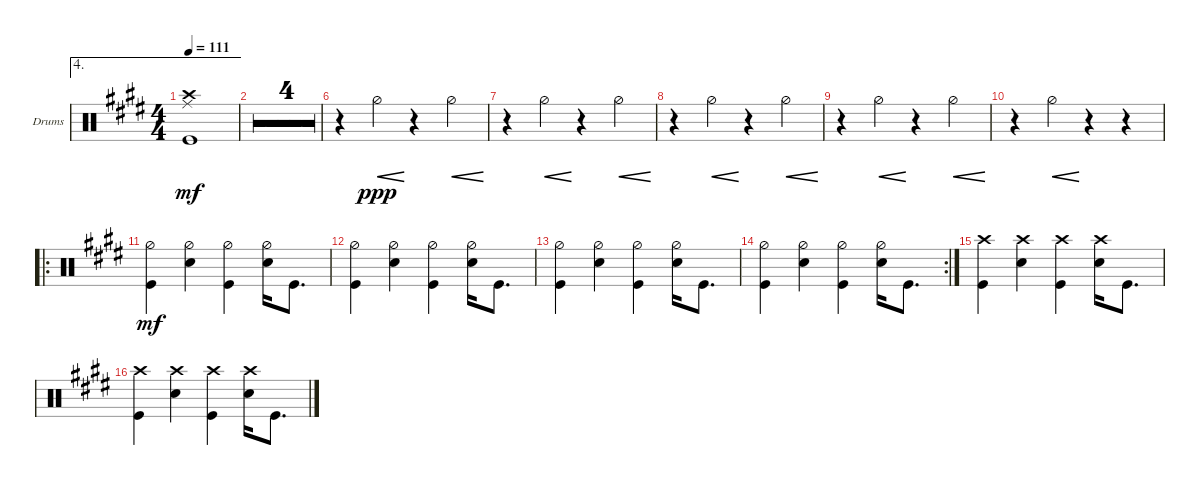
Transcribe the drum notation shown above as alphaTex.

\defaultSystemsLayout 4
\bracketExtendMode groupsimilarinstruments
\firstSystemTrackNameOrientation horizontal
\otherSystemsTrackNameOrientation horizontal
\track ("Drumkit" "Drums") {multiBarRest instrument percussion}
\staff {score}
\articulation defaults
\ae 4
\ts (4 4)
\tempo 111
\clef neutral
\ks e
("Kick (hit)" "Ride (middle)" "Crash high (hit)").1{dy mf} |
|
|
|
|
r.4 "Hi-Hat (half)".4{cre dy ppp} r.4 "Hi-Hat (half)".4{cre} |
r.4 "Hi-Hat (half)".4{cre} r.4 "Hi-Hat (half)".4{cre} |
r.4 "Hi-Hat (half)".4{cre} r.4 "Hi-Hat (half)".4{cre} |
r.4 "Hi-Hat (half)".4{cre} r.4 "Hi-Hat (half)".4{cre} |
r.4 "Hi-Hat (half)".4{cre} r.4 r.4 |
\ro
("Kick (hit)" "Hi-Hat (half)").4{dy mf} ("Snare (hit) 2" "Hi-Hat (half)").4 ("Kick (hit)" "Hi-Hat (half)").4 ("Snare (hit) 2" "Hi-Hat (half)").16 "Kick (hit)".8{d} |
("Kick (hit)" "Hi-Hat (half)").4 ("Snare (hit) 2" "Hi-Hat (half)").4 ("Kick (hit)" "Hi-Hat (half)").4 ("Snare (hit) 2" "Hi-Hat (half)").16 "Kick (hit)".8{d} |
("Kick (hit)" "Hi-Hat (half)").4 ("Snare (hit) 2" "Hi-Hat (half)").4 ("Kick (hit)" "Hi-Hat (half)").4 ("Snare (hit) 2" "Hi-Hat (half)").16 "Kick (hit)".8{d} |
\rc 2
("Kick (hit)" "Hi-Hat (half)").4 ("Snare (hit) 2" "Hi-Hat (half)").4 ("Kick (hit)" "Hi-Hat (half)").4 ("Snare (hit) 2" "Hi-Hat (half)").16 "Kick (hit)".8{d} |
("Kick (hit)" "Crash high (hit)").4 ("Snare (hit) 2" "Crash high (hit)").4 ("Kick (hit)" "Crash high (hit)").4 ("Snare (hit) 2" "Crash high (hit)").16 "Kick (hit)".8{d} |
("Kick (hit)" "Crash high (hit)").4 ("Snare (hit) 2" "Crash high (hit)").4 ("Kick (hit)" "Crash high (hit)").4 ("Snare (hit) 2" "Crash high (hit)").16 "Kick (hit)".8{d}
